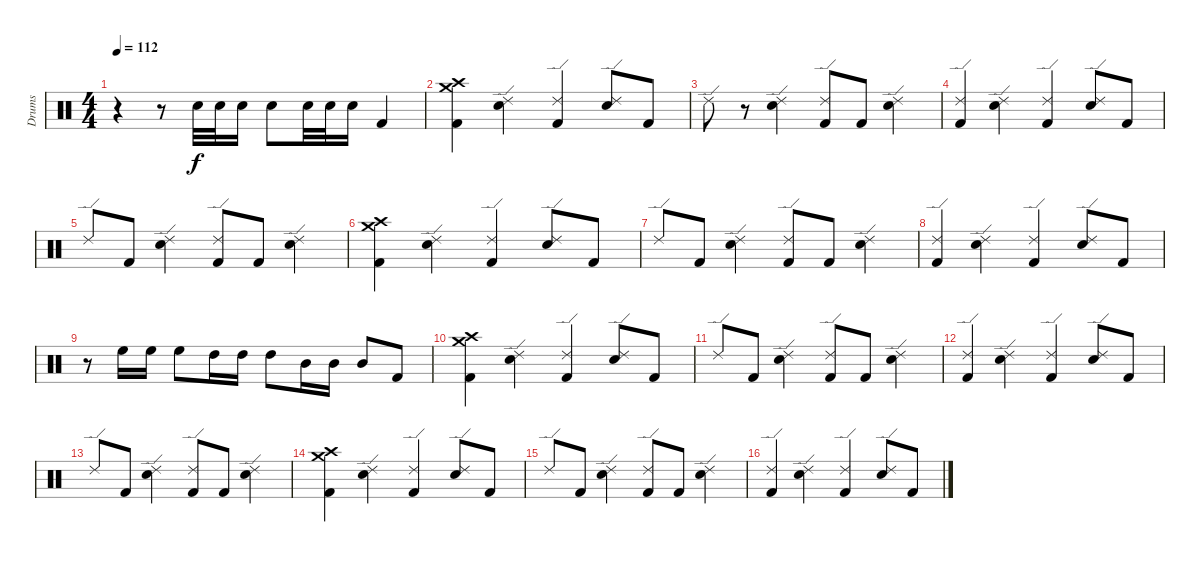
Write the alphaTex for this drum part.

\track ("Drums" "Drums") {instrument percussion}
\staff {score}
\articulation defaults
\ts (4 4)
\tempo 112
\clef neutral
\ks c
r.4{dy f} r.8 "Electric Snare (hit)".32 "Electric Snare (hit)".32 "Electric Snare (hit)".16 "Electric Snare (hit)".8 "Electric Snare (hit)".32 "Electric Snare (hit)".32 "Electric Snare (hit)".16 "Kick (hit) 2".4 |
("Crash medium (hit)" "Crash high (hit)" "Kick (hit) 2").4 ("Ride (edge) 2" "Electric Snare (hit)").4 ("Ride (edge) 2" "Kick (hit) 2").4 ("Ride (edge) 2" "Electric Snare (hit)").8 "Kick (hit) 2".8 |
"Ride (edge) 2".8 r.8 ("Ride (edge) 2" "Electric Snare (hit)").4 ("Ride (edge) 2" "Kick (hit) 2").8 "Kick (hit) 2".8 ("Ride (edge) 2" "Electric Snare (hit)").4 |
("Ride (edge) 2" "Kick (hit) 2").4 ("Ride (edge) 2" "Electric Snare (hit)").4 ("Ride (edge) 2" "Kick (hit) 2").4 ("Ride (edge) 2" "Electric Snare (hit)").8 "Kick (hit) 2".8 |
"Ride (edge) 2".8 "Kick (hit) 2".8 ("Ride (edge) 2" "Electric Snare (hit)").4 ("Ride (edge) 2" "Kick (hit) 2").8 "Kick (hit) 2".8 ("Ride (edge) 2" "Electric Snare (hit)").4 |
("Crash medium (hit)" "Crash high (hit)" "Kick (hit) 2").4 ("Ride (edge) 2" "Electric Snare (hit)").4 ("Ride (edge) 2" "Kick (hit) 2").4 ("Ride (edge) 2" "Electric Snare (hit)").8 "Kick (hit) 2".8 |
"Ride (edge) 2".8 "Kick (hit) 2".8 ("Ride (edge) 2" "Electric Snare (hit)").4 ("Ride (edge) 2" "Kick (hit) 2").8 "Kick (hit) 2".8 ("Ride (edge) 2" "Electric Snare (hit)").4 |
("Ride (edge) 2" "Kick (hit) 2").4 ("Ride (edge) 2" "Electric Snare (hit)").4 ("Ride (edge) 2" "Kick (hit) 2").4 ("Ride (edge) 2" "Electric Snare (hit)").8 "Kick (hit) 2".8 |
r.8 "High Floor Tom (hit)".16 "High Floor Tom (hit)".16 "High Floor Tom (hit)".8 "High Tom (hit)".16 "High Tom (hit)".16 "High Tom (hit)".8 "Mid Tom (hit)".16 "Mid Tom (hit)".16 "Mid Tom (hit)".8 "Kick (hit) 2".8 |
("Crash medium (hit)" "Crash high (hit)" "Kick (hit) 2").4 ("Ride (edge) 2" "Electric Snare (hit)").4 ("Ride (edge) 2" "Kick (hit) 2").4 ("Ride (edge) 2" "Electric Snare (hit)").8 "Kick (hit) 2".8 |
"Ride (edge) 2".8 "Kick (hit) 2".8 ("Ride (edge) 2" "Electric Snare (hit)").4 ("Ride (edge) 2" "Kick (hit) 2").8 "Kick (hit) 2".8 ("Ride (edge) 2" "Electric Snare (hit)").4 |
("Ride (edge) 2" "Kick (hit) 2").4 ("Ride (edge) 2" "Electric Snare (hit)").4 ("Ride (edge) 2" "Kick (hit) 2").4 ("Ride (edge) 2" "Electric Snare (hit)").8 "Kick (hit) 2".8 |
"Ride (edge) 2".8 "Kick (hit) 2".8 ("Ride (edge) 2" "Electric Snare (hit)").4 ("Ride (edge) 2" "Kick (hit) 2").8 "Kick (hit) 2".8 ("Ride (edge) 2" "Electric Snare (hit)").4 |
("Crash medium (hit)" "Crash high (hit)" "Kick (hit) 2").4 ("Ride (edge) 2" "Electric Snare (hit)").4 ("Ride (edge) 2" "Kick (hit) 2").4 ("Ride (edge) 2" "Electric Snare (hit)").8 "Kick (hit) 2".8 |
"Ride (edge) 2".8 "Kick (hit) 2".8 ("Ride (edge) 2" "Electric Snare (hit)").4 ("Ride (edge) 2" "Kick (hit) 2").8 "Kick (hit) 2".8 ("Ride (edge) 2" "Electric Snare (hit)").4 |
("Ride (edge) 2" "Kick (hit) 2").4 ("Ride (edge) 2" "Electric Snare (hit)").4 ("Ride (edge) 2" "Kick (hit) 2").4 ("Ride (edge) 2" "Electric Snare (hit)").8 "Kick (hit) 2".8
